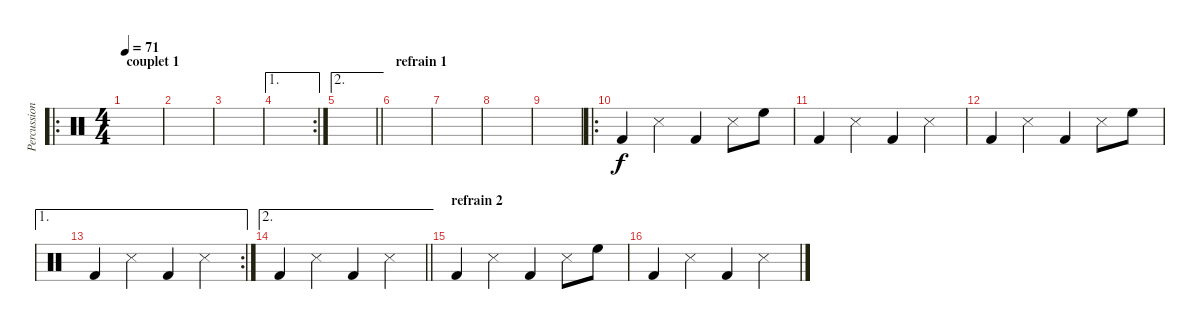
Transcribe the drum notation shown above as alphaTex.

\track ("Percussions" "Percussion") {instrument percussion}
\staff {score}
\articulation defaults
\ro
\ts (4 4)
\section ("" "couplet 1")
\tempo 71
\clef neutral
\ks c
|
|
|
\ae 1
\rc 2
|
\ae 2
\barLineRight lightlight
|
\section ("" "refrain 1")
|
|
|
|
\ro "Kick (hit) 2".4 "Snare (side stick) 3".4 "Kick (hit) 2".4 "Snare (side stick) 3".8 "High Floor Tom (hit)".8
|
"Kick (hit) 2".4 "Snare (side stick) 3".4 "Kick (hit) 2".4 "Snare (side stick) 3".4 |
"Kick (hit) 2".4 "Snare (side stick) 3".4 "Kick (hit) 2".4 "Snare (side stick) 3".8 "High Floor Tom (hit)".8 |
\ae 1
\rc 2 "Kick (hit) 2".4 "Snare (side stick) 3".4 "Kick (hit) 2".4 "Snare (side stick) 3".4
|
\ae 2
\barLineRight lightlight "Kick (hit) 2".4 "Snare (side stick) 3".4 "Kick (hit) 2".4 "Snare (side stick) 3".4
|
\section ("" "refrain 2")
"Kick (hit) 2".4 "Snare (side stick) 3".4 "Kick (hit) 2".4 "Snare (side stick) 3".8 "High Floor Tom (hit)".8 |
"Kick (hit) 2".4 "Snare (side stick) 3".4 "Kick (hit) 2".4 "Snare (side stick) 3".4
